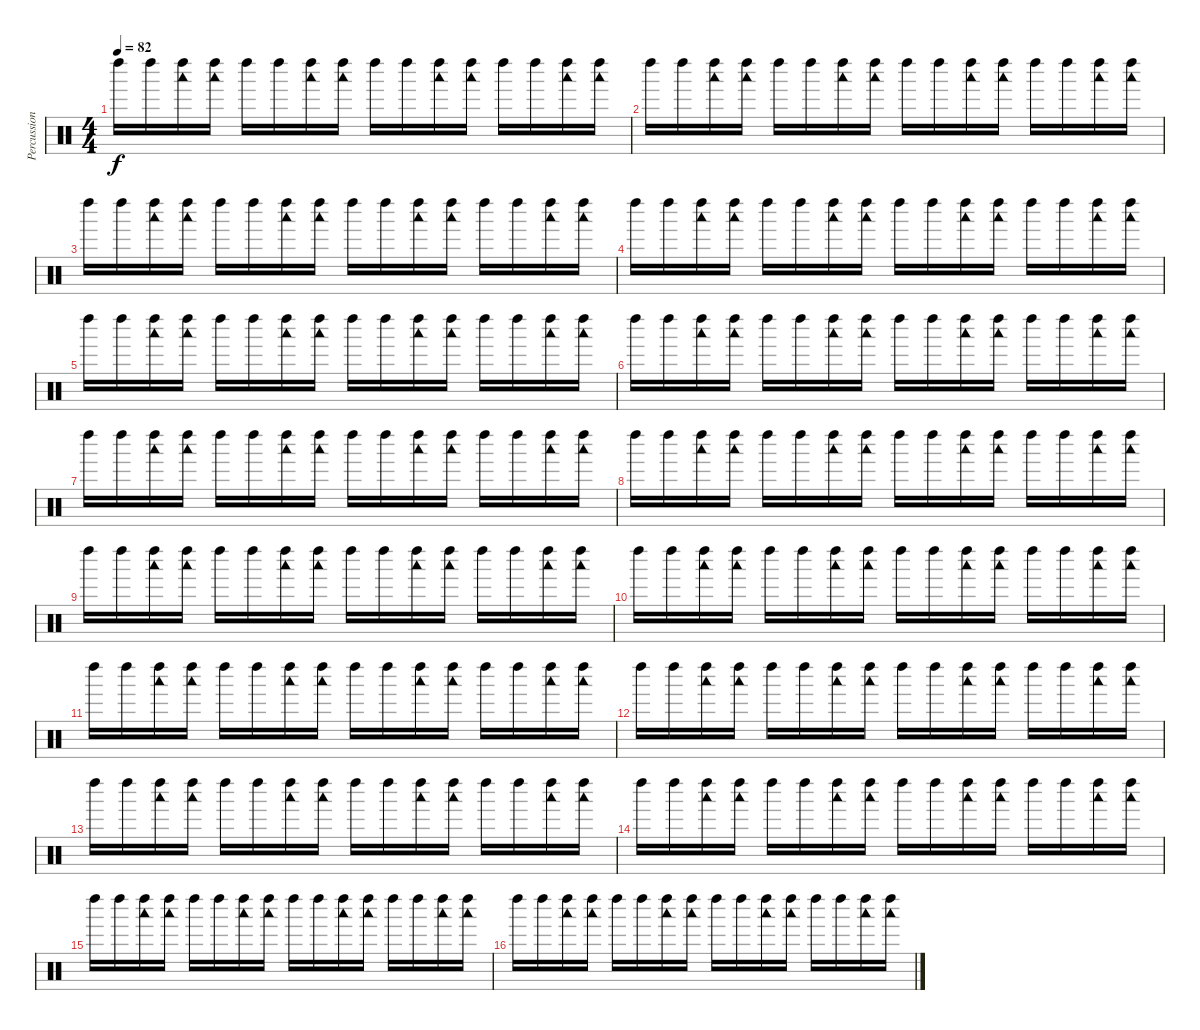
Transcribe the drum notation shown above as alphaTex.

\track ("Percussion" "Percussion") {instrument percussion}
\staff {score}
\articulation defaults
\ts (4 4)
\tempo 82
\clef neutral
\ks c "Left Maraca (hit)".16{dy f} "Left Maraca (hit)".16
("Left Maraca (hit)" "Woodblock low (hit)").16 ("Left Maraca (hit)" "Woodblock low (hit)").16 "Left Maraca (hit)".16 "Left Maraca (hit)".16 ("Left Maraca (hit)" "Woodblock low (hit)").16 ("Left Maraca (hit)" "Woodblock low (hit)").16 "Left Maraca (hit)".16 "Left Maraca (hit)".16 ("Left Maraca (hit)" "Woodblock low (hit)").16 ("Left Maraca (hit)" "Woodblock low (hit)").16 "Left Maraca (hit)".16 "Left Maraca (hit)".16 ("Left Maraca (hit)" "Woodblock low (hit)").16 ("Left Maraca (hit)" "Woodblock low (hit)").16 |
"Left Maraca (hit)".16 "Left Maraca (hit)".16 ("Left Maraca (hit)" "Woodblock low (hit)").16 ("Left Maraca (hit)" "Woodblock low (hit)").16 "Left Maraca (hit)".16 "Left Maraca (hit)".16 ("Left Maraca (hit)" "Woodblock low (hit)").16 ("Left Maraca (hit)" "Woodblock low (hit)").16 "Left Maraca (hit)".16 "Left Maraca (hit)".16 ("Left Maraca (hit)" "Woodblock low (hit)").16 ("Left Maraca (hit)" "Woodblock low (hit)").16 "Left Maraca (hit)".16 "Left Maraca (hit)".16 ("Left Maraca (hit)" "Woodblock low (hit)").16 ("Left Maraca (hit)" "Woodblock low (hit)").16 |
"Left Maraca (hit)".16 "Left Maraca (hit)".16 ("Left Maraca (hit)" "Woodblock low (hit)").16 ("Left Maraca (hit)" "Woodblock low (hit)").16 "Left Maraca (hit)".16 "Left Maraca (hit)".16 ("Left Maraca (hit)" "Woodblock low (hit)").16 ("Left Maraca (hit)" "Woodblock low (hit)").16 "Left Maraca (hit)".16 "Left Maraca (hit)".16 ("Left Maraca (hit)" "Woodblock low (hit)").16 ("Left Maraca (hit)" "Woodblock low (hit)").16 "Left Maraca (hit)".16 "Left Maraca (hit)".16 ("Left Maraca (hit)" "Woodblock low (hit)").16 ("Left Maraca (hit)" "Woodblock low (hit)").16 |
"Left Maraca (hit)".16 "Left Maraca (hit)".16 ("Left Maraca (hit)" "Woodblock low (hit)").16 ("Left Maraca (hit)" "Woodblock low (hit)").16 "Left Maraca (hit)".16 "Left Maraca (hit)".16 ("Left Maraca (hit)" "Woodblock low (hit)").16 ("Left Maraca (hit)" "Woodblock low (hit)").16 "Left Maraca (hit)".16 "Left Maraca (hit)".16 ("Left Maraca (hit)" "Woodblock low (hit)").16 ("Left Maraca (hit)" "Woodblock low (hit)").16 "Left Maraca (hit)".16 "Left Maraca (hit)".16 ("Left Maraca (hit)" "Woodblock low (hit)").16 ("Left Maraca (hit)" "Woodblock low (hit)").16 |
"Left Maraca (hit)".16 "Left Maraca (hit)".16 ("Left Maraca (hit)" "Woodblock low (hit)").16 ("Left Maraca (hit)" "Woodblock low (hit)").16 "Left Maraca (hit)".16 "Left Maraca (hit)".16 ("Left Maraca (hit)" "Woodblock low (hit)").16 ("Left Maraca (hit)" "Woodblock low (hit)").16 "Left Maraca (hit)".16 "Left Maraca (hit)".16 ("Left Maraca (hit)" "Woodblock low (hit)").16 ("Left Maraca (hit)" "Woodblock low (hit)").16 "Left Maraca (hit)".16 "Left Maraca (hit)".16 ("Left Maraca (hit)" "Woodblock low (hit)").16 ("Left Maraca (hit)" "Woodblock low (hit)").16 |
"Left Maraca (hit)".16 "Left Maraca (hit)".16 ("Left Maraca (hit)" "Woodblock low (hit)").16 ("Left Maraca (hit)" "Woodblock low (hit)").16 "Left Maraca (hit)".16 "Left Maraca (hit)".16 ("Left Maraca (hit)" "Woodblock low (hit)").16 ("Left Maraca (hit)" "Woodblock low (hit)").16 "Left Maraca (hit)".16 "Left Maraca (hit)".16 ("Left Maraca (hit)" "Woodblock low (hit)").16 ("Left Maraca (hit)" "Woodblock low (hit)").16 "Left Maraca (hit)".16 "Left Maraca (hit)".16 ("Left Maraca (hit)" "Woodblock low (hit)").16 ("Left Maraca (hit)" "Woodblock low (hit)").16 |
"Left Maraca (hit)".16 "Left Maraca (hit)".16 ("Left Maraca (hit)" "Woodblock low (hit)").16 ("Left Maraca (hit)" "Woodblock low (hit)").16 "Left Maraca (hit)".16 "Left Maraca (hit)".16 ("Left Maraca (hit)" "Woodblock low (hit)").16 ("Left Maraca (hit)" "Woodblock low (hit)").16 "Left Maraca (hit)".16 "Left Maraca (hit)".16 ("Left Maraca (hit)" "Woodblock low (hit)").16 ("Left Maraca (hit)" "Woodblock low (hit)").16 "Left Maraca (hit)".16 "Left Maraca (hit)".16 ("Left Maraca (hit)" "Woodblock low (hit)").16 ("Left Maraca (hit)" "Woodblock low (hit)").16 |
"Left Maraca (hit)".16 "Left Maraca (hit)".16 ("Left Maraca (hit)" "Woodblock low (hit)").16 ("Left Maraca (hit)" "Woodblock low (hit)").16 "Left Maraca (hit)".16 "Left Maraca (hit)".16 ("Left Maraca (hit)" "Woodblock low (hit)").16 ("Left Maraca (hit)" "Woodblock low (hit)").16 "Left Maraca (hit)".16 "Left Maraca (hit)".16 ("Left Maraca (hit)" "Woodblock low (hit)").16 ("Left Maraca (hit)" "Woodblock low (hit)").16 "Left Maraca (hit)".16 "Left Maraca (hit)".16 ("Left Maraca (hit)" "Woodblock low (hit)").16 ("Left Maraca (hit)" "Woodblock low (hit)").16 |
"Left Maraca (hit)".16 "Left Maraca (hit)".16 ("Left Maraca (hit)" "Woodblock low (hit)").16 ("Left Maraca (hit)" "Woodblock low (hit)").16 "Left Maraca (hit)".16 "Left Maraca (hit)".16 ("Left Maraca (hit)" "Woodblock low (hit)").16 ("Left Maraca (hit)" "Woodblock low (hit)").16 "Left Maraca (hit)".16 "Left Maraca (hit)".16 ("Left Maraca (hit)" "Woodblock low (hit)").16 ("Left Maraca (hit)" "Woodblock low (hit)").16 "Left Maraca (hit)".16 "Left Maraca (hit)".16 ("Left Maraca (hit)" "Woodblock low (hit)").16 ("Left Maraca (hit)" "Woodblock low (hit)").16 |
"Left Maraca (hit)".16 "Left Maraca (hit)".16 ("Left Maraca (hit)" "Woodblock low (hit)").16 ("Left Maraca (hit)" "Woodblock low (hit)").16 "Left Maraca (hit)".16 "Left Maraca (hit)".16 ("Left Maraca (hit)" "Woodblock low (hit)").16 ("Left Maraca (hit)" "Woodblock low (hit)").16 "Left Maraca (hit)".16 "Left Maraca (hit)".16 ("Left Maraca (hit)" "Woodblock low (hit)").16 ("Left Maraca (hit)" "Woodblock low (hit)").16 "Left Maraca (hit)".16 "Left Maraca (hit)".16 ("Left Maraca (hit)" "Woodblock low (hit)").16 ("Left Maraca (hit)" "Woodblock low (hit)").16 |
"Left Maraca (hit)".16 "Left Maraca (hit)".16 ("Left Maraca (hit)" "Woodblock low (hit)").16 ("Left Maraca (hit)" "Woodblock low (hit)").16 "Left Maraca (hit)".16 "Left Maraca (hit)".16 ("Left Maraca (hit)" "Woodblock low (hit)").16 ("Left Maraca (hit)" "Woodblock low (hit)").16 "Left Maraca (hit)".16 "Left Maraca (hit)".16 ("Left Maraca (hit)" "Woodblock low (hit)").16 ("Left Maraca (hit)" "Woodblock low (hit)").16 "Left Maraca (hit)".16 "Left Maraca (hit)".16 ("Left Maraca (hit)" "Woodblock low (hit)").16 ("Left Maraca (hit)" "Woodblock low (hit)").16 |
"Left Maraca (hit)".16 "Left Maraca (hit)".16 ("Left Maraca (hit)" "Woodblock low (hit)").16 ("Left Maraca (hit)" "Woodblock low (hit)").16 "Left Maraca (hit)".16 "Left Maraca (hit)".16 ("Left Maraca (hit)" "Woodblock low (hit)").16 ("Left Maraca (hit)" "Woodblock low (hit)").16 "Left Maraca (hit)".16 "Left Maraca (hit)".16 ("Left Maraca (hit)" "Woodblock low (hit)").16 ("Left Maraca (hit)" "Woodblock low (hit)").16 "Left Maraca (hit)".16 "Left Maraca (hit)".16 ("Left Maraca (hit)" "Woodblock low (hit)").16 ("Left Maraca (hit)" "Woodblock low (hit)").16 |
"Left Maraca (hit)".16 "Left Maraca (hit)".16 ("Left Maraca (hit)" "Woodblock low (hit)").16 ("Left Maraca (hit)" "Woodblock low (hit)").16 "Left Maraca (hit)".16 "Left Maraca (hit)".16 ("Left Maraca (hit)" "Woodblock low (hit)").16 ("Left Maraca (hit)" "Woodblock low (hit)").16 "Left Maraca (hit)".16 "Left Maraca (hit)".16 ("Left Maraca (hit)" "Woodblock low (hit)").16 ("Left Maraca (hit)" "Woodblock low (hit)").16 "Left Maraca (hit)".16 "Left Maraca (hit)".16 ("Left Maraca (hit)" "Woodblock low (hit)").16 ("Left Maraca (hit)" "Woodblock low (hit)").16 |
"Left Maraca (hit)".16 "Left Maraca (hit)".16 ("Left Maraca (hit)" "Woodblock low (hit)").16 ("Left Maraca (hit)" "Woodblock low (hit)").16 "Left Maraca (hit)".16 "Left Maraca (hit)".16 ("Left Maraca (hit)" "Woodblock low (hit)").16 ("Left Maraca (hit)" "Woodblock low (hit)").16 "Left Maraca (hit)".16 "Left Maraca (hit)".16 ("Left Maraca (hit)" "Woodblock low (hit)").16 ("Left Maraca (hit)" "Woodblock low (hit)").16 "Left Maraca (hit)".16 "Left Maraca (hit)".16 ("Left Maraca (hit)" "Woodblock low (hit)").16 ("Left Maraca (hit)" "Woodblock low (hit)").16 |
"Left Maraca (hit)".16 "Left Maraca (hit)".16 ("Left Maraca (hit)" "Woodblock low (hit)").16 ("Left Maraca (hit)" "Woodblock low (hit)").16 "Left Maraca (hit)".16 "Left Maraca (hit)".16 ("Left Maraca (hit)" "Woodblock low (hit)").16 ("Left Maraca (hit)" "Woodblock low (hit)").16 "Left Maraca (hit)".16 "Left Maraca (hit)".16 ("Left Maraca (hit)" "Woodblock low (hit)").16 ("Left Maraca (hit)" "Woodblock low (hit)").16 "Left Maraca (hit)".16 "Left Maraca (hit)".16 ("Left Maraca (hit)" "Woodblock low (hit)").16 ("Left Maraca (hit)" "Woodblock low (hit)").16 |
"Left Maraca (hit)".16 "Left Maraca (hit)".16 ("Left Maraca (hit)" "Woodblock low (hit)").16 ("Left Maraca (hit)" "Woodblock low (hit)").16 "Left Maraca (hit)".16 "Left Maraca (hit)".16 ("Left Maraca (hit)" "Woodblock low (hit)").16 ("Left Maraca (hit)" "Woodblock low (hit)").16 "Left Maraca (hit)".16 "Left Maraca (hit)".16 ("Left Maraca (hit)" "Woodblock low (hit)").16 ("Left Maraca (hit)" "Woodblock low (hit)").16 "Left Maraca (hit)".16 "Left Maraca (hit)".16 ("Left Maraca (hit)" "Woodblock low (hit)").16 ("Left Maraca (hit)" "Woodblock low (hit)").16
